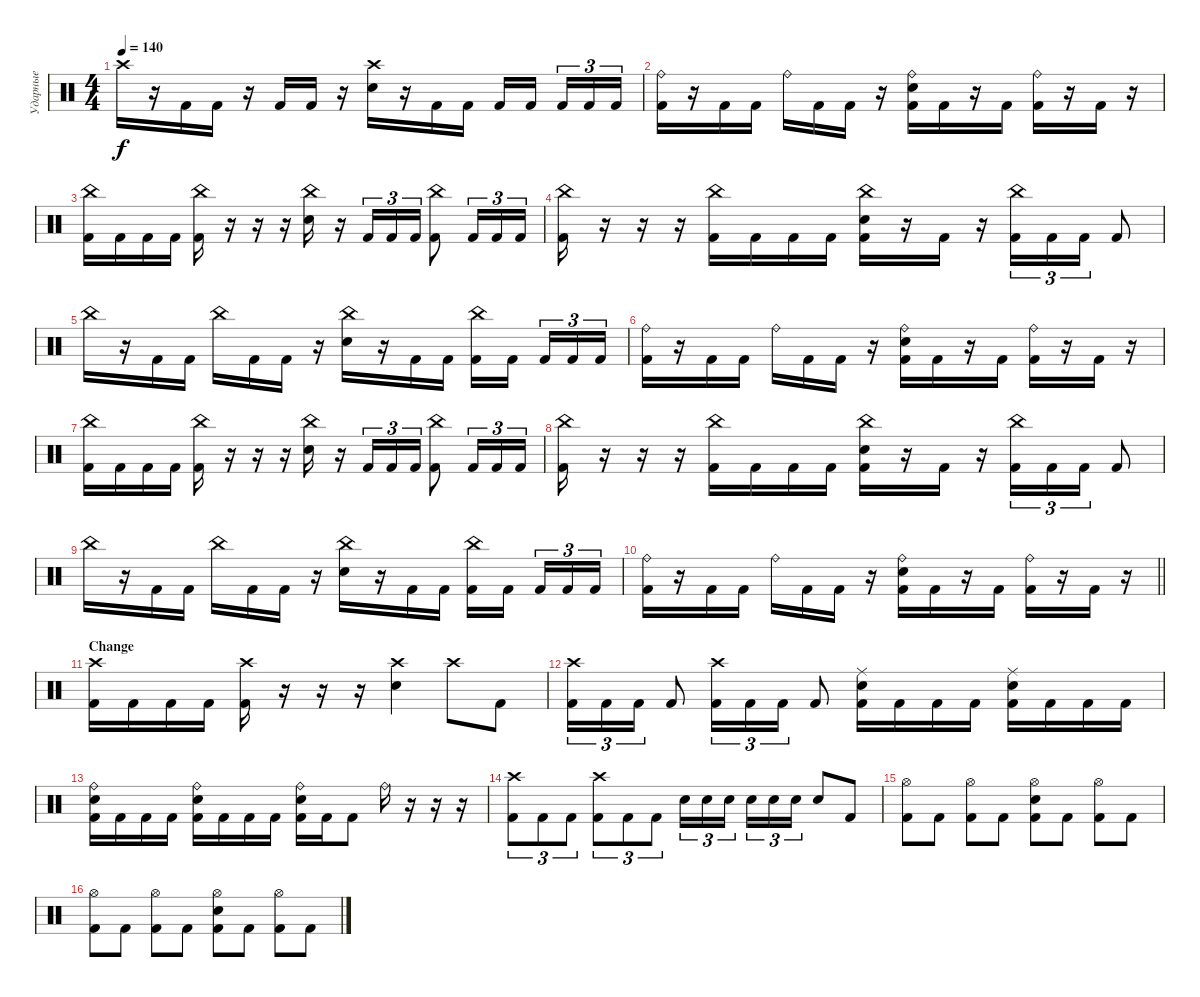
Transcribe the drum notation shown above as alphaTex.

\track ("Ударные" "Ударные") {instrument percussion}
\staff {score}
\articulation defaults
\ts (4 4)
\tempo 140
\clef neutral
\ks c "Crash high (hit)".16{dy f}
r.16 "Kick (hit) 2".16 "Kick (hit) 2".16 r.16 "Kick (hit) 2".16 "Kick (hit) 2".16 r.16 ("Crash high (hit)" "Electric Snare (hit)").16 r.16 "Kick (hit) 2".16 "Kick (hit) 2".16 "Kick (hit) 2".16 "Kick (hit) 2".16{beam splitsecondary} "Kick (hit) 2".16{tu (3 2)} "Kick (hit) 2".16{tu (3 2)} "Kick (hit) 2".16{tu (3 2)} |
("Ride (bell)" "Kick (hit) 2").16 r.16 "Kick (hit) 2".16 "Kick (hit) 2".16 "Ride (bell)".16 "Kick (hit) 2".16 "Kick (hit) 2".16 r.16 ("Ride (bell)" "Electric Snare (hit)" "Kick (hit) 2").16 "Kick (hit) 2".16 r.16 "Kick (hit) 2".16 ("Ride (bell)" "Kick (hit) 2").16 r.16 "Kick (hit) 2".16 r.16 |
("China (hit)" "Kick (hit) 2").16 "Kick (hit) 2".16 "Kick (hit) 2".16 "Kick (hit) 2".16 ("China (hit)" "Kick (hit) 2").16 r.16 r.16 r.16 ("China (hit)" "Electric Snare (hit)").16 r.16 "Kick (hit) 2".16{tu (3 2)} "Kick (hit) 2".16{tu (3 2)} "Kick (hit) 2".16{tu (3 2)} ("China (hit)" "Kick (hit) 2").8 "Kick (hit) 2".16{tu (3 2)} "Kick (hit) 2".16{tu (3 2)} "Kick (hit) 2".16{tu (3 2)} |
("China (hit)" "Kick (hit) 2").16 r.16 r.16 r.16 ("China (hit)" "Kick (hit) 2").16 "Kick (hit) 2".16 "Kick (hit) 2".16 "Kick (hit) 2".16 ("China (hit)" "Electric Snare (hit)" "Kick (hit) 2").16 r.16 "Kick (hit) 2".16 r.16 ("China (hit)" "Kick (hit) 2").16{tu (3 2)} "Kick (hit) 2".16{tu (3 2)} "Kick (hit) 2".16{tu (3 2)} "Kick (hit) 2".8 |
"China (hit)".16 r.16 "Kick (hit) 2".16 "Kick (hit) 2".16 "China (hit)".16 "Kick (hit) 2".16 "Kick (hit) 2".16 r.16 ("China (hit)" "Electric Snare (hit)").16 r.16 "Kick (hit) 2".16 "Kick (hit) 2".16 ("China (hit)" "Kick (hit) 2").16 "Kick (hit) 2".16{beam splitsecondary} "Kick (hit) 2".16{tu (3 2)} "Kick (hit) 2".16{tu (3 2)} "Kick (hit) 2".16{tu (3 2)} |
("Ride (bell)" "Kick (hit) 2").16 r.16 "Kick (hit) 2".16 "Kick (hit) 2".16 "Ride (bell)".16 "Kick (hit) 2".16 "Kick (hit) 2".16 r.16 ("Ride (bell)" "Electric Snare (hit)" "Kick (hit) 2").16 "Kick (hit) 2".16 r.16 "Kick (hit) 2".16 ("Ride (bell)" "Kick (hit) 2").16 r.16 "Kick (hit) 2".16 r.16 |
("China (hit)" "Kick (hit) 2").16 "Kick (hit) 2".16 "Kick (hit) 2".16 "Kick (hit) 2".16 ("China (hit)" "Kick (hit) 2").16 r.16 r.16 r.16 ("China (hit)" "Electric Snare (hit)").16 r.16 "Kick (hit) 2".16{tu (3 2)} "Kick (hit) 2".16{tu (3 2)} "Kick (hit) 2".16{tu (3 2)} ("China (hit)" "Kick (hit) 2").8 "Kick (hit) 2".16{tu (3 2)} "Kick (hit) 2".16{tu (3 2)} "Kick (hit) 2".16{tu (3 2)} |
("China (hit)" "Kick (hit) 2").16 r.16 r.16 r.16 ("China (hit)" "Kick (hit) 2").16 "Kick (hit) 2".16 "Kick (hit) 2".16 "Kick (hit) 2".16 ("China (hit)" "Electric Snare (hit)" "Kick (hit) 2").16 r.16 "Kick (hit) 2".16 r.16 ("China (hit)" "Kick (hit) 2").16{tu (3 2)} "Kick (hit) 2".16{tu (3 2)} "Kick (hit) 2".16{tu (3 2)} "Kick (hit) 2".8 |
"China (hit)".16 r.16 "Kick (hit) 2".16 "Kick (hit) 2".16 "China (hit)".16 "Kick (hit) 2".16 "Kick (hit) 2".16 r.16 ("China (hit)" "Electric Snare (hit)").16 r.16 "Kick (hit) 2".16 "Kick (hit) 2".16 ("China (hit)" "Kick (hit) 2").16 "Kick (hit) 2".16{beam splitsecondary} "Kick (hit) 2".16{tu (3 2)} "Kick (hit) 2".16{tu (3 2)} "Kick (hit) 2".16{tu (3 2)} |
\barLineRight lightlight
("Ride (bell)" "Kick (hit) 2").16 r.16 "Kick (hit) 2".16 "Kick (hit) 2".16 "Ride (bell)".16 "Kick (hit) 2".16 "Kick (hit) 2".16 r.16 ("Ride (bell)" "Electric Snare (hit)" "Kick (hit) 2").16 "Kick (hit) 2".16 r.16 "Kick (hit) 2".16 ("Ride (bell)" "Kick (hit) 2").16 r.16 "Kick (hit) 2".16 r.16 |
\section ("" "Change")
("Crash high (hit)" "Kick (hit) 2").16 "Kick (hit) 2".16 "Kick (hit) 2".16 "Kick (hit) 2".16 ("Crash high (hit)" "Kick (hit) 2").16 r.16 r.16 r.16 ("Crash high (hit)" "Electric Snare (hit)").4 "Crash high (hit)".8 "Kick (hit) 2".8 |
("Crash high (hit)" "Kick (hit) 2").16{tu (3 2)} "Kick (hit) 2".16{tu (3 2)} "Kick (hit) 2".16{tu (3 2)} "Kick (hit) 2".8 ("Crash high (hit)" "Kick (hit) 2").16{tu (3 2)} "Kick (hit) 2".16{tu (3 2)} "Kick (hit) 2".16{tu (3 2)} "Kick (hit) 2".8 ("Ride (middle)" "Electric Snare (hit)" "Kick (hit) 2").16 "Kick (hit) 2".16 "Kick (hit) 2".16 "Kick (hit) 2".16 ("Ride (middle)" "Electric Snare (hit)" "Kick (hit) 2").16 "Kick (hit) 2".16 "Kick (hit) 2".16 "Kick (hit) 2".16 |
("Ride (bell)" "Electric Snare (hit)" "Kick (hit) 2").16 "Kick (hit) 2".16 "Kick (hit) 2".16 "Kick (hit) 2".16 ("Ride (bell)" "Electric Snare (hit)" "Kick (hit) 2").16 "Kick (hit) 2".16 "Kick (hit) 2".16 "Kick (hit) 2".16 ("Ride (bell)" "Electric Snare (hit)" "Kick (hit) 2").16 "Kick (hit) 2".16 "Kick (hit) 2".8 "Ride (bell)".16 r.16 r.16 r.16 |
("Crash high (hit)" "Kick (hit) 2").8{tu (3 2)} "Kick (hit) 2".8{tu (3 2)} "Kick (hit) 2".8{tu (3 2)} ("Crash high (hit)" "Kick (hit) 2").8{tu (3 2)} "Kick (hit) 2".8{tu (3 2)} "Kick (hit) 2".8{tu (3 2)} "Electric Snare (hit)".16{tu (3 2)} "Electric Snare (hit)".16{tu (3 2)} "Electric Snare (hit)".16{tu (3 2) beam splitsecondary} "Electric Snare (hit)".16{tu (3 2)} "Electric Snare (hit)".16{tu (3 2)} "Electric Snare (hit)".16{tu (3 2)} "Electric Snare (hit)".8 "Kick (hit) 2".8 |
("Hi-Hat (open)" "Kick (hit) 2").8 "Kick (hit) 2".8 ("Hi-Hat (open)" "Kick (hit) 2").8 "Kick (hit) 2".8 ("Hi-Hat (open)" "Electric Snare (hit)" "Kick (hit) 2").8 "Kick (hit) 2".8 ("Hi-Hat (open)" "Kick (hit) 2").8 "Kick (hit) 2".8 |
("Hi-Hat (open)" "Kick (hit) 2").8 "Kick (hit) 2".8 ("Hi-Hat (open)" "Kick (hit) 2").8 "Kick (hit) 2".8 ("Hi-Hat (open)" "Electric Snare (hit)" "Kick (hit) 2").8 "Kick (hit) 2".8 ("Hi-Hat (open)" "Kick (hit) 2").8 "Kick (hit) 2".8
